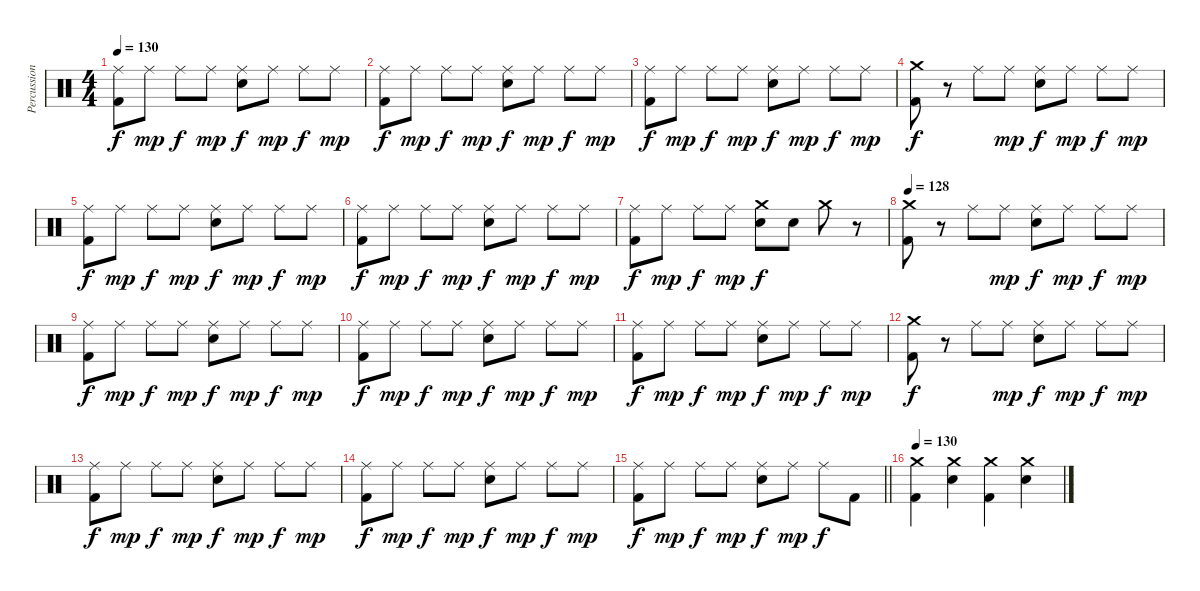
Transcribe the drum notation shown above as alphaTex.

\track ("Percussion" "Percussion") {instrument percussion}
\staff {score}
\articulation defaults
\ts (4 4)
\tempo 130
\clef neutral
\ks c
("Ride (middle)" "Kick (hit) 2").8{dy f} "Ride (middle)".8{dy mp} "Ride (middle)".8{dy f} "Ride (middle)".8{dy mp} ("Ride (middle)" "Electric Snare (hit)").8{dy f} "Ride (middle)".8{dy mp} "Ride (middle)".8{dy f} "Ride (middle)".8{dy mp} |
("Ride (middle)" "Kick (hit) 2").8{dy f} "Ride (middle)".8{dy mp} "Ride (middle)".8{dy f} "Ride (middle)".8{dy mp} ("Ride (middle)" "Electric Snare (hit)").8{dy f} "Ride (middle)".8{dy mp} "Ride (middle)".8{dy f} "Ride (middle)".8{dy mp} |
("Ride (middle)" "Kick (hit) 2").8{dy f} "Ride (middle)".8{dy mp} "Ride (middle)".8{dy f} "Ride (middle)".8{dy mp} ("Ride (middle)" "Electric Snare (hit)").8{dy f} "Ride (middle)".8{dy mp} "Ride (middle)".8{dy f} "Ride (middle)".8{dy mp} |
("Crash medium (hit)" "Kick (hit) 2").8{dy f} r.8 "Ride (middle)".8 "Ride (middle)".8{dy mp} ("Ride (middle)" "Electric Snare (hit)").8{dy f} "Ride (middle)".8{dy mp} "Ride (middle)".8{dy f} "Ride (middle)".8{dy mp} |
("Ride (middle)" "Kick (hit) 2").8{dy f} "Ride (middle)".8{dy mp} "Ride (middle)".8{dy f} "Ride (middle)".8{dy mp} ("Ride (middle)" "Electric Snare (hit)").8{dy f} "Ride (middle)".8{dy mp} "Ride (middle)".8{dy f} "Ride (middle)".8{dy mp} |
("Ride (middle)" "Kick (hit) 2").8{dy f} "Ride (middle)".8{dy mp} "Ride (middle)".8{dy f} "Ride (middle)".8{dy mp} ("Ride (middle)" "Electric Snare (hit)").8{dy f} "Ride (middle)".8{dy mp} "Ride (middle)".8{dy f} "Ride (middle)".8{dy mp} |
("Ride (middle)" "Kick (hit) 2").8{dy f} "Ride (middle)".8{dy mp} "Ride (middle)".8{dy f} "Ride (middle)".8{dy mp} ("Crash medium (hit)" "Electric Snare (hit)").8{dy f} "Electric Snare (hit)".8 "Crash medium (hit)".8 r.8 |
\tempo 128
("Crash medium (hit)" "Kick (hit) 2").8 r.8 "Ride (middle)".8 "Ride (middle)".8{dy mp} ("Ride (middle)" "Electric Snare (hit)").8{dy f} "Ride (middle)".8{dy mp} "Ride (middle)".8{dy f} "Ride (middle)".8{dy mp} |
("Ride (middle)" "Kick (hit) 2").8{dy f} "Ride (middle)".8{dy mp} "Ride (middle)".8{dy f} "Ride (middle)".8{dy mp} ("Ride (middle)" "Electric Snare (hit)").8{dy f} "Ride (middle)".8{dy mp} "Ride (middle)".8{dy f} "Ride (middle)".8{dy mp} |
("Ride (middle)" "Kick (hit) 2").8{dy f} "Ride (middle)".8{dy mp} "Ride (middle)".8{dy f} "Ride (middle)".8{dy mp} ("Ride (middle)" "Electric Snare (hit)").8{dy f} "Ride (middle)".8{dy mp} "Ride (middle)".8{dy f} "Ride (middle)".8{dy mp} |
("Ride (middle)" "Kick (hit) 2").8{dy f} "Ride (middle)".8{dy mp} "Ride (middle)".8{dy f} "Ride (middle)".8{dy mp} ("Ride (middle)" "Electric Snare (hit)").8{dy f} "Ride (middle)".8{dy mp} "Ride (middle)".8{dy f} "Ride (middle)".8{dy mp} |
("Crash medium (hit)" "Kick (hit) 2").8{dy f} r.8 "Ride (middle)".8 "Ride (middle)".8{dy mp} ("Ride (middle)" "Electric Snare (hit)").8{dy f} "Ride (middle)".8{dy mp} "Ride (middle)".8{dy f} "Ride (middle)".8{dy mp} |
("Ride (middle)" "Kick (hit) 2").8{dy f} "Ride (middle)".8{dy mp} "Ride (middle)".8{dy f} "Ride (middle)".8{dy mp} ("Ride (middle)" "Electric Snare (hit)").8{dy f} "Ride (middle)".8{dy mp} "Ride (middle)".8{dy f} "Ride (middle)".8{dy mp} |
("Ride (middle)" "Kick (hit) 2").8{dy f} "Ride (middle)".8{dy mp} "Ride (middle)".8{dy f} "Ride (middle)".8{dy mp} ("Ride (middle)" "Electric Snare (hit)").8{dy f} "Ride (middle)".8{dy mp} "Ride (middle)".8{dy f} "Ride (middle)".8{dy mp} |
\barLineRight lightlight
("Ride (middle)" "Kick (hit) 2").8{dy f} "Ride (middle)".8{dy mp} "Ride (middle)".8{dy f} "Ride (middle)".8{dy mp} ("Ride (middle)" "Electric Snare (hit)").8{dy f} "Ride (middle)".8{dy mp} "Ride (middle)".8{dy f} "Kick (hit) 2".8 |
\section ("" "")
\tempo 130
("Crash medium (hit)" "Kick (hit) 2").4 ("Crash medium (hit)" "Electric Snare (hit)").4 ("Crash medium (hit)" "Kick (hit) 2").4 ("Crash medium (hit)" "Electric Snare (hit)").4
